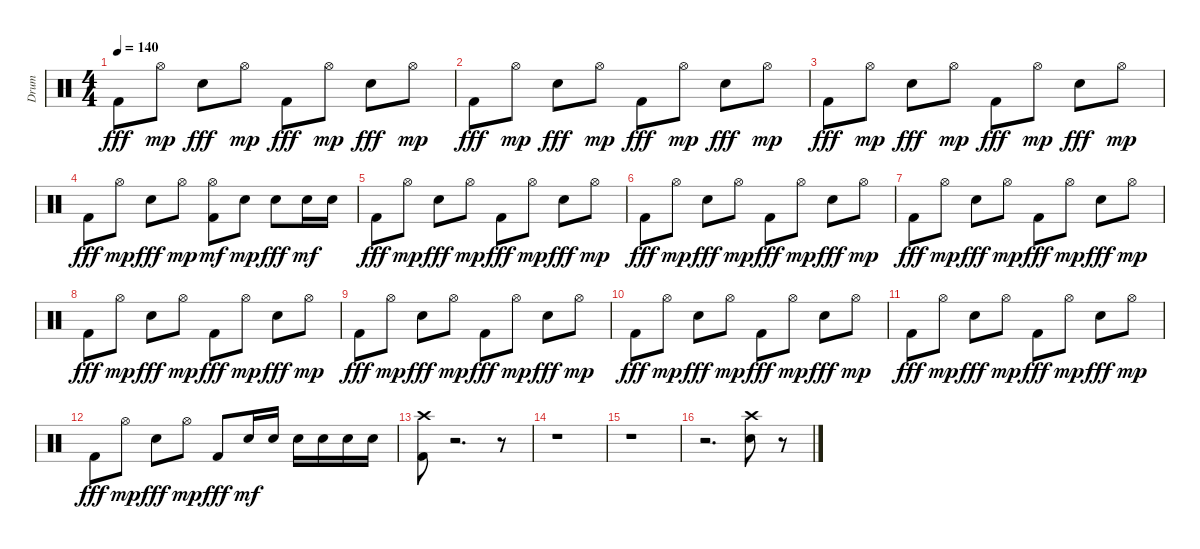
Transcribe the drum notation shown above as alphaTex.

\track ("Drum" "Drum") {instrument percussion}
\staff {score}
\articulation defaults
\ts (4 4)
\tempo 140
\clef neutral
\ks c "Kick (hit) 2".8{dy fff} "Hi-Hat (open)".8{dy mp} "Electric Snare (hit)".8{dy fff} "Hi-Hat (open)".8{dy mp} "Kick (hit) 2".8{dy fff} "Hi-Hat (open)".8{dy mp} "Electric Snare (hit)".8{dy fff} "Hi-Hat (open)".8{dy mp}
|
"Kick (hit) 2".8{dy fff} "Hi-Hat (open)".8{dy mp} "Electric Snare (hit)".8{dy fff} "Hi-Hat (open)".8{dy mp} "Kick (hit) 2".8{dy fff} "Hi-Hat (open)".8{dy mp} "Electric Snare (hit)".8{dy fff} "Hi-Hat (open)".8{dy mp} |
"Kick (hit) 2".8{dy fff} "Hi-Hat (open)".8{dy mp} "Electric Snare (hit)".8{dy fff} "Hi-Hat (open)".8{dy mp} "Kick (hit) 2".8{dy fff} "Hi-Hat (open)".8{dy mp} "Electric Snare (hit)".8{dy fff} "Hi-Hat (open)".8{dy mp} |
"Kick (hit) 2".8{dy fff} "Hi-Hat (open)".8{dy mp} "Electric Snare (hit)".8{dy fff} "Hi-Hat (open)".8{dy mp} ("Kick (hit) 2" "Hi-Hat (open)").8{dy mf} "Electric Snare (hit)".8{dy mp} "Electric Snare (hit)".8{dy fff} "Electric Snare (hit)".16{dy mf} "Electric Snare (hit)".16 |
"Kick (hit) 2".8{dy fff} "Hi-Hat (open)".8{dy mp} "Electric Snare (hit)".8{dy fff} "Hi-Hat (open)".8{dy mp} "Kick (hit) 2".8{dy fff} "Hi-Hat (open)".8{dy mp} "Electric Snare (hit)".8{dy fff} "Hi-Hat (open)".8{dy mp} |
"Kick (hit) 2".8{dy fff} "Hi-Hat (open)".8{dy mp} "Electric Snare (hit)".8{dy fff} "Hi-Hat (open)".8{dy mp} "Kick (hit) 2".8{dy fff} "Hi-Hat (open)".8{dy mp} "Electric Snare (hit)".8{dy fff} "Hi-Hat (open)".8{dy mp} |
"Kick (hit) 2".8{dy fff} "Hi-Hat (open)".8{dy mp} "Electric Snare (hit)".8{dy fff} "Hi-Hat (open)".8{dy mp} "Kick (hit) 2".8{dy fff} "Hi-Hat (open)".8{dy mp} "Electric Snare (hit)".8{dy fff} "Hi-Hat (open)".8{dy mp} |
"Kick (hit) 2".8{dy fff} "Hi-Hat (open)".8{dy mp} "Electric Snare (hit)".8{dy fff} "Hi-Hat (open)".8{dy mp} "Kick (hit) 2".8{dy fff} "Hi-Hat (open)".8{dy mp} "Electric Snare (hit)".8{dy fff} "Hi-Hat (open)".8{dy mp} |
"Kick (hit) 2".8{dy fff} "Hi-Hat (open)".8{dy mp} "Electric Snare (hit)".8{dy fff} "Hi-Hat (open)".8{dy mp} "Kick (hit) 2".8{dy fff} "Hi-Hat (open)".8{dy mp} "Electric Snare (hit)".8{dy fff} "Hi-Hat (open)".8{dy mp} |
"Kick (hit) 2".8{dy fff} "Hi-Hat (open)".8{dy mp} "Electric Snare (hit)".8{dy fff} "Hi-Hat (open)".8{dy mp} "Kick (hit) 2".8{dy fff} "Hi-Hat (open)".8{dy mp} "Electric Snare (hit)".8{dy fff} "Hi-Hat (open)".8{dy mp} |
"Kick (hit) 2".8{dy fff} "Hi-Hat (open)".8{dy mp} "Electric Snare (hit)".8{dy fff} "Hi-Hat (open)".8{dy mp} "Kick (hit) 2".8{dy fff} "Hi-Hat (open)".8{dy mp} "Electric Snare (hit)".8{dy fff} "Hi-Hat (open)".8{dy mp} |
"Kick (hit) 2".8{dy fff} "Hi-Hat (open)".8{dy mp} "Electric Snare (hit)".8{dy fff} "Hi-Hat (open)".8{dy mp} "Kick (hit) 2".8{dy fff} "Electric Snare (hit)".16{dy mf} "Electric Snare (hit)".16 "Electric Snare (hit)".16 "Electric Snare (hit)".16 "Electric Snare (hit)".16 "Electric Snare (hit)".16 |
("Kick (hit) 2" "Crash high (hit)").8 r.2{d} r.8 |
r.1 |
r.1 |
r.2{d} ("Electric Snare (hit)" "Crash high (hit)").8 r.8
